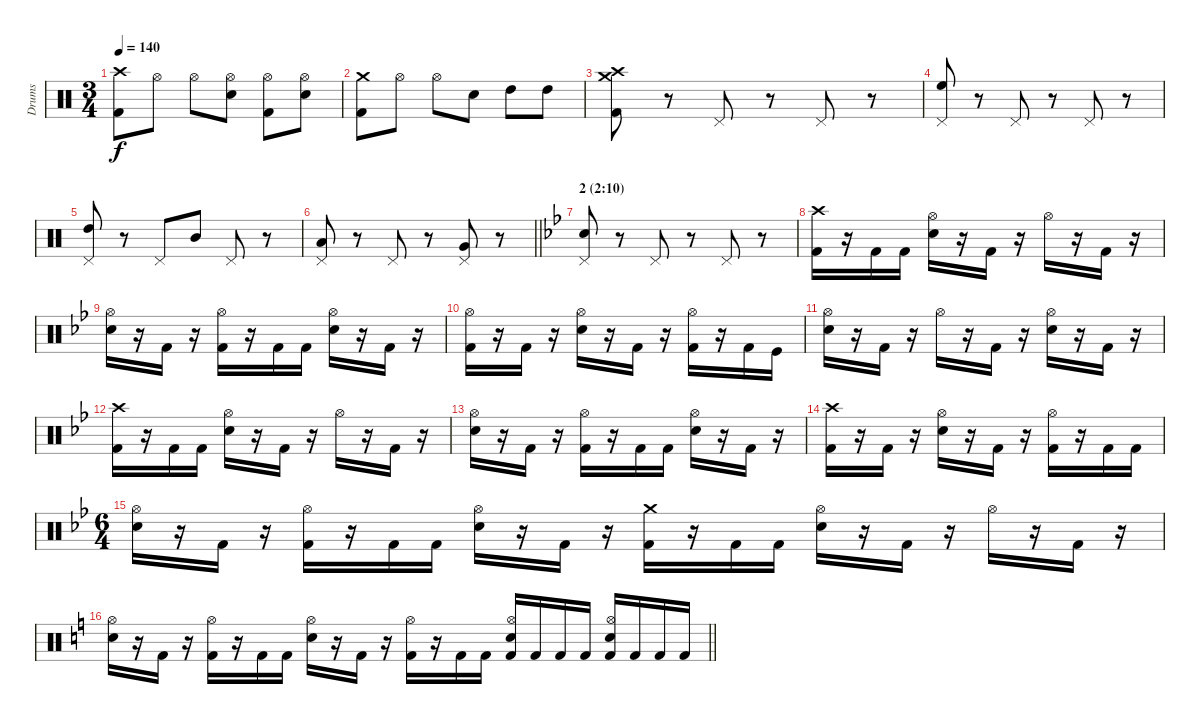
\track ("Drums" "Drums") {instrument percussion}
\staff {score}
\articulation defaults
\ts (3 4)
\tempo 140
\clef neutral
\ks c
("Crash high (hit)" "Kick (hit) 2").8{dy f} "Hi-Hat (open)".8 "Hi-Hat (open)".8 ("Hi-Hat (open)" "Snare (hit) 2").8 ("Hi-Hat (open)" "Kick (hit) 2").8 ("Hi-Hat (open)" "Snare (hit) 2").8 |
("Crash medium (hit)" "Kick (hit) 2").8 "Hi-Hat (open)".8 "Hi-Hat (open)".8 "Snare (hit) 2".8 "High Tom (hit)".8 "High Tom (hit)".8 |
("Crash high (hit)" "Crash medium (hit)" "Kick (hit) 2").8 r.8 "Pedal Hi-Hat (hit)".8 r.8 "Pedal Hi-Hat (hit)".8 r.8 |
("High Floor Tom (hit)" "Pedal Hi-Hat (hit)").8 r.8 "Pedal Hi-Hat (hit)".8 r.8 "Pedal Hi-Hat (hit)".8 r.8 |
("High Tom (hit)" "Pedal Hi-Hat (hit)").8 r.8 "Pedal Hi-Hat (hit)".8 "Mid Tom (hit)".8 "Pedal Hi-Hat (hit)".8 r.8 |
\barLineRight lightlight
("Low Tom (hit)" "Pedal Hi-Hat (hit)").8 r.8 "Pedal Hi-Hat (hit)".8 r.8 ("Very Low Tom (hit)" "Pedal Hi-Hat (hit)").8 r.8 |
\section ("" "2 (2:10)")
\ks gminor
("Pedal Hi-Hat (hit)" "Snare (hit) 2").8 r.8 "Pedal Hi-Hat (hit)".8 r.8 "Pedal Hi-Hat (hit)".8 r.8 |
("Crash high (hit)" "Kick (hit) 2").16 r.16 "Kick (hit) 2".16 "Kick (hit) 2".16 ("Hi-Hat (open)" "Snare (hit) 2").16 r.16 "Kick (hit) 2".16 r.16 "Hi-Hat (open)".16 r.16 "Kick (hit) 2".16 r.16 |
("Hi-Hat (open)" "Snare (hit) 2").16 r.16 "Kick (hit) 2".16 r.16 ("Hi-Hat (open)" "Kick (hit) 2").16 r.16 "Kick (hit) 2".16 "Kick (hit) 2".16 ("Hi-Hat (open)" "Snare (hit) 2").16 r.16 "Kick (hit) 2".16 r.16 |
("Hi-Hat (open)" "Kick (hit) 2").16 r.16 "Kick (hit) 2".16 r.16 ("Hi-Hat (open)" "Snare (hit) 2").16 r.16 "Kick (hit) 2".16 r.16 ("Hi-Hat (open)" "Kick (hit) 2").16 r.16 "Kick (hit) 2".16 "Kick (hit)".16 |
("Hi-Hat (open)" "Snare (hit) 2").16 r.16 "Kick (hit) 2".16 r.16 "Hi-Hat (open)".16 r.16 "Kick (hit) 2".16 r.16 ("Hi-Hat (open)" "Snare (hit) 2").16 r.16 "Kick (hit) 2".16 r.16 |
("Crash high (hit)" "Kick (hit) 2").16 r.16 "Kick (hit) 2".16 "Kick (hit) 2".16 ("Hi-Hat (open)" "Snare (hit) 2").16 r.16 "Kick (hit) 2".16 r.16 "Hi-Hat (open)".16 r.16 "Kick (hit) 2".16 r.16 |
("Hi-Hat (open)" "Snare (hit) 2").16 r.16 "Kick (hit) 2".16 r.16 ("Hi-Hat (open)" "Kick (hit) 2").16 r.16 "Kick (hit) 2".16 "Kick (hit) 2".16 ("Hi-Hat (open)" "Snare (hit) 2").16 r.16 "Kick (hit) 2".16 r.16 |
("Crash high (hit)" "Kick (hit) 2").16 r.16 "Kick (hit) 2".16 r.16 ("Hi-Hat (open)" "Snare (hit) 2").16 r.16 "Kick (hit) 2".16 r.16 ("Hi-Hat (open)" "Kick (hit) 2").16 r.16 "Kick (hit) 2".16 "Kick (hit) 2".16 |
\ts (6 4)
("Hi-Hat (open)" "Snare (hit) 2").16 r.16 "Kick (hit) 2".16 r.16 ("Hi-Hat (open)" "Kick (hit) 2").16 r.16 "Kick (hit) 2".16 "Kick (hit) 2".16 ("Hi-Hat (open)" "Snare (hit) 2").16 r.16 "Kick (hit) 2".16 r.16 ("Crash medium (hit)" "Kick (hit) 2").16 r.16 "Kick (hit) 2".16 "Kick (hit) 2".16 ("Hi-Hat (open)" "Snare (hit) 2").16 r.16 "Kick (hit) 2".16 r.16 "Hi-Hat (open)".16 r.16 "Kick (hit) 2".16 r.16 |
\barLineRight lightlight
\ks c
("Hi-Hat (open)" "Snare (hit) 2").16 r.16 "Kick (hit) 2".16 r.16 ("Hi-Hat (open)" "Kick (hit) 2").16 r.16 "Kick (hit) 2".16 "Kick (hit) 2".16 ("Hi-Hat (open)" "Snare (hit) 2").16 r.16 "Kick (hit) 2".16 r.16 ("Hi-Hat (open)" "Kick (hit) 2").16 r.16 "Kick (hit) 2".16 "Kick (hit) 2".16 ("Hi-Hat (open)" "Snare (hit) 2" "Kick (hit) 2").16 "Kick (hit) 2".16 "Kick (hit) 2".16 "Kick (hit) 2".16 ("Hi-Hat (open)" "Snare (hit) 2" "Kick (hit) 2").16 "Kick (hit) 2".16 "Kick (hit) 2".16 "Kick (hit) 2".16
